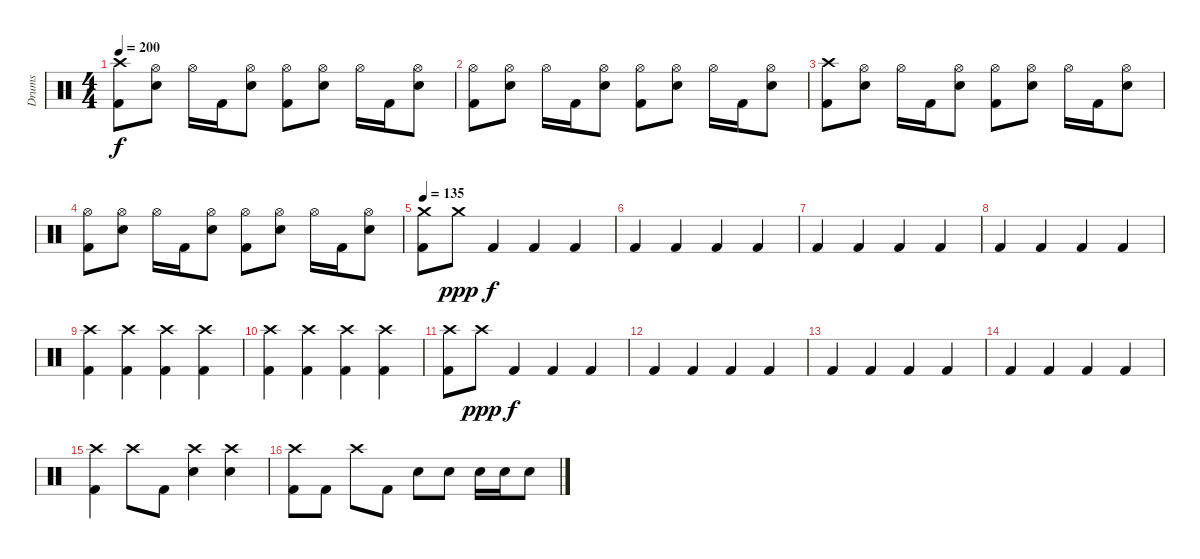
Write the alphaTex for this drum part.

\track ("Drums" "Drums") {instrument percussion}
\staff {score}
\articulation defaults
\ts (4 4)
\tempo 200
\clef neutral
\ks c
("Crash high (hit)" "Kick (hit) 2").8{dy f} ("Hi-Hat (open)" "Electric Snare (hit)").8 "Hi-Hat (open)".16 "Kick (hit) 2".16 ("Hi-Hat (open)" "Electric Snare (hit)").8 ("Hi-Hat (open)" "Kick (hit) 2").8 ("Hi-Hat (open)" "Electric Snare (hit)").8 "Hi-Hat (open)".16 "Kick (hit) 2".16 ("Hi-Hat (open)" "Electric Snare (hit)").8 |
("Hi-Hat (open)" "Kick (hit) 2").8 ("Hi-Hat (open)" "Electric Snare (hit)").8 "Hi-Hat (open)".16 "Kick (hit) 2".16 ("Hi-Hat (open)" "Electric Snare (hit)").8 ("Hi-Hat (open)" "Kick (hit) 2").8 ("Hi-Hat (open)" "Electric Snare (hit)").8 "Hi-Hat (open)".16 "Kick (hit) 2".16 ("Hi-Hat (open)" "Electric Snare (hit)").8 |
("Crash high (hit)" "Kick (hit) 2").8 ("Hi-Hat (open)" "Electric Snare (hit)").8 "Hi-Hat (open)".16 "Kick (hit) 2".16 ("Hi-Hat (open)" "Electric Snare (hit)").8 ("Hi-Hat (open)" "Kick (hit) 2").8 ("Hi-Hat (open)" "Electric Snare (hit)").8 "Hi-Hat (open)".16 "Kick (hit) 2".16 ("Hi-Hat (open)" "Electric Snare (hit)").8 |
("Hi-Hat (open)" "Kick (hit) 2").8 ("Hi-Hat (open)" "Electric Snare (hit)").8 "Hi-Hat (open)".16 "Kick (hit) 2".16 ("Hi-Hat (open)" "Electric Snare (hit)").8 ("Hi-Hat (open)" "Kick (hit) 2").8 ("Hi-Hat (open)" "Electric Snare (hit)").8 "Hi-Hat (open)".16 "Kick (hit) 2".16 ("Hi-Hat (open)" "Electric Snare (hit)").8 |
\tempo 135
("Crash medium (hit)" "Kick (hit) 2").8 "Crash medium (hit)".8{dy ppp} "Kick (hit) 2".4{dy f} "Kick (hit) 2".4 "Kick (hit) 2".4 |
"Kick (hit) 2".4 "Kick (hit) 2".4 "Kick (hit) 2".4 "Kick (hit) 2".4 |
"Kick (hit) 2".4 "Kick (hit) 2".4 "Kick (hit) 2".4 "Kick (hit) 2".4 |
"Kick (hit) 2".4 "Kick (hit) 2".4 "Kick (hit) 2".4 "Kick (hit) 2".4 |
("Crash high (hit)" "Kick (hit) 2").4 ("Crash high (hit)" "Kick (hit) 2").4 ("Crash high (hit)" "Kick (hit) 2").4 ("Crash high (hit)" "Kick (hit) 2").4 |
("Crash high (hit)" "Kick (hit) 2").4 ("Crash high (hit)" "Kick (hit) 2").4 ("Crash high (hit)" "Kick (hit) 2").4 ("Crash high (hit)" "Kick (hit) 2").4 |
("Crash high (hit)" "Kick (hit) 2").8 "Crash high (hit)".8{dy ppp} "Kick (hit) 2".4{dy f} "Kick (hit) 2".4 "Kick (hit) 2".4 |
"Kick (hit) 2".4 "Kick (hit) 2".4 "Kick (hit) 2".4 "Kick (hit) 2".4 |
"Kick (hit) 2".4 "Kick (hit) 2".4 "Kick (hit) 2".4 "Kick (hit) 2".4 |
"Kick (hit) 2".4 "Kick (hit) 2".4 "Kick (hit) 2".4 "Kick (hit) 2".4 |
("Crash high (hit)" "Kick (hit) 2").4 "Crash high (hit)".8 "Kick (hit) 2".8 ("Crash high (hit)" "Electric Snare (hit)").4 ("Crash high (hit)" "Electric Snare (hit)").4 |
("Crash high (hit)" "Kick (hit) 2").8 "Kick (hit) 2".8 "Crash high (hit)".8 "Kick (hit) 2".8 "Electric Snare (hit)".8 "Electric Snare (hit)".8 "Electric Snare (hit)".16 "Electric Snare (hit)".16 "Electric Snare (hit)".8
